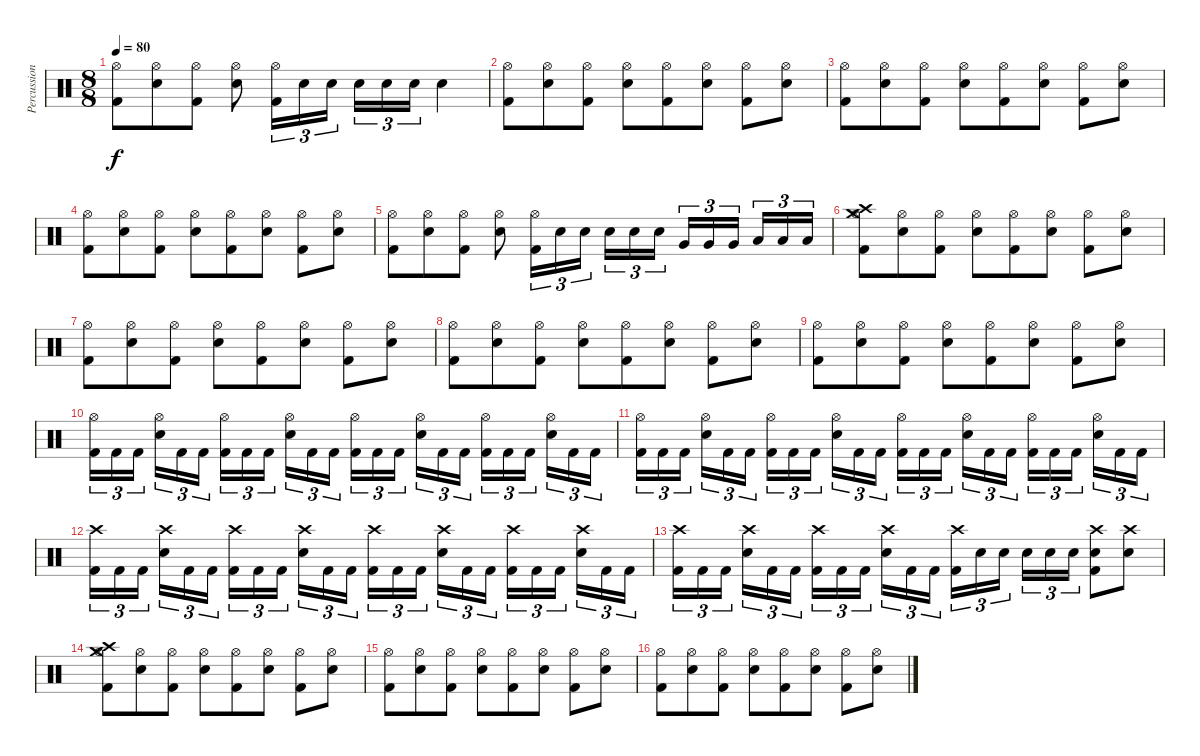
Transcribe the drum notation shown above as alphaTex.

\track ("Percussion" "Percussion") {instrument percussion}
\staff {score}
\articulation defaults
\ts (8 8)
\tempo 80
\clef neutral
\ks c
("Hi-Hat (open)" "Kick (hit) 2").8{dy f} ("Hi-Hat (open)" "Electric Snare (hit)").8 ("Hi-Hat (open)" "Kick (hit) 2").8 ("Hi-Hat (open)" "Electric Snare (hit)").8 ("Hi-Hat (open)" "Kick (hit) 2").16{tu (3 2)} "Electric Snare (hit)".16{tu (3 2)} "Electric Snare (hit)".16{tu (3 2)} "Electric Snare (hit)".16{tu (3 2)} "Electric Snare (hit)".16{tu (3 2)} "Electric Snare (hit)".16{tu (3 2)} "Electric Snare (hit)".4 |
("Hi-Hat (open)" "Kick (hit) 2").8 ("Hi-Hat (open)" "Electric Snare (hit)").8 ("Hi-Hat (open)" "Kick (hit) 2").8 ("Hi-Hat (open)" "Electric Snare (hit)").8 ("Hi-Hat (open)" "Kick (hit) 2").8 ("Hi-Hat (open)" "Electric Snare (hit)").8 ("Hi-Hat (open)" "Kick (hit) 2").8 ("Hi-Hat (open)" "Electric Snare (hit)").8 |
("Hi-Hat (open)" "Kick (hit) 2").8 ("Hi-Hat (open)" "Electric Snare (hit)").8 ("Hi-Hat (open)" "Kick (hit) 2").8 ("Hi-Hat (open)" "Electric Snare (hit)").8 ("Hi-Hat (open)" "Kick (hit) 2").8 ("Hi-Hat (open)" "Electric Snare (hit)").8 ("Hi-Hat (open)" "Kick (hit) 2").8 ("Hi-Hat (open)" "Electric Snare (hit)").8 |
("Hi-Hat (open)" "Kick (hit) 2").8 ("Hi-Hat (open)" "Electric Snare (hit)").8 ("Hi-Hat (open)" "Kick (hit) 2").8 ("Hi-Hat (open)" "Electric Snare (hit)").8 ("Hi-Hat (open)" "Kick (hit) 2").8 ("Hi-Hat (open)" "Electric Snare (hit)").8 ("Hi-Hat (open)" "Kick (hit) 2").8 ("Hi-Hat (open)" "Electric Snare (hit)").8 |
("Hi-Hat (open)" "Kick (hit) 2").8 ("Hi-Hat (open)" "Electric Snare (hit)").8 ("Hi-Hat (open)" "Kick (hit) 2").8 ("Hi-Hat (open)" "Electric Snare (hit)").8 ("Hi-Hat (open)" "Kick (hit) 2").16{tu (3 2)} "Electric Snare (hit)".16{tu (3 2)} "Electric Snare (hit)".16{tu (3 2)} "Electric Snare (hit)".16{tu (3 2)} "Electric Snare (hit)".16{tu (3 2)} "Electric Snare (hit)".16{tu (3 2)} "Very Low Tom (hit)".16{tu (3 2)} "Very Low Tom (hit)".16{tu (3 2)} "Very Low Tom (hit)".16{tu (3 2)} "Low Floor Tom (hit)".16{tu (3 2)} "Low Floor Tom (hit)".16{tu (3 2)} "Low Floor Tom (hit)".16{tu (3 2)} |
("Hi-Hat (open)" "Kick (hit) 2" "Crash high (hit)" "Crash medium (hit)").8 ("Hi-Hat (open)" "Electric Snare (hit)").8 ("Hi-Hat (open)" "Kick (hit) 2").8 ("Hi-Hat (open)" "Electric Snare (hit)").8 ("Hi-Hat (open)" "Kick (hit) 2").8 ("Hi-Hat (open)" "Electric Snare (hit)").8 ("Hi-Hat (open)" "Kick (hit) 2").8 ("Hi-Hat (open)" "Electric Snare (hit)").8 |
("Hi-Hat (open)" "Kick (hit) 2").8 ("Hi-Hat (open)" "Electric Snare (hit)").8 ("Hi-Hat (open)" "Kick (hit) 2").8 ("Hi-Hat (open)" "Electric Snare (hit)").8 ("Hi-Hat (open)" "Kick (hit) 2").8 ("Hi-Hat (open)" "Electric Snare (hit)").8 ("Hi-Hat (open)" "Kick (hit) 2").8 ("Hi-Hat (open)" "Electric Snare (hit)").8 |
("Hi-Hat (open)" "Kick (hit) 2").8 ("Hi-Hat (open)" "Electric Snare (hit)").8 ("Hi-Hat (open)" "Kick (hit) 2").8 ("Hi-Hat (open)" "Electric Snare (hit)").8 ("Hi-Hat (open)" "Kick (hit) 2").8 ("Hi-Hat (open)" "Electric Snare (hit)").8 ("Hi-Hat (open)" "Kick (hit) 2").8 ("Hi-Hat (open)" "Electric Snare (hit)").8 |
("Hi-Hat (open)" "Kick (hit) 2").8 ("Hi-Hat (open)" "Electric Snare (hit)").8 ("Hi-Hat (open)" "Kick (hit) 2").8 ("Hi-Hat (open)" "Electric Snare (hit)").8 ("Hi-Hat (open)" "Kick (hit) 2").8 ("Hi-Hat (open)" "Electric Snare (hit)").8 ("Hi-Hat (open)" "Kick (hit) 2").8 ("Hi-Hat (open)" "Electric Snare (hit)").8 |
("Hi-Hat (open)" "Kick (hit) 2").16{tu (3 2)} "Kick (hit) 2".16{tu (3 2)} "Kick (hit) 2".16{tu (3 2)} ("Hi-Hat (open)" "Electric Snare (hit)").16{tu (3 2)} "Kick (hit) 2".16{tu (3 2)} "Kick (hit) 2".16{tu (3 2)} ("Hi-Hat (open)" "Kick (hit) 2").16{tu (3 2)} "Kick (hit) 2".16{tu (3 2)} "Kick (hit) 2".16{tu (3 2)} ("Hi-Hat (open)" "Electric Snare (hit)").16{tu (3 2)} "Kick (hit) 2".16{tu (3 2)} "Kick (hit) 2".16{tu (3 2)} ("Hi-Hat (open)" "Kick (hit) 2").16{tu (3 2)} "Kick (hit) 2".16{tu (3 2)} "Kick (hit) 2".16{tu (3 2)} ("Hi-Hat (open)" "Electric Snare (hit)").16{tu (3 2)} "Kick (hit) 2".16{tu (3 2)} "Kick (hit) 2".16{tu (3 2)} ("Hi-Hat (open)" "Kick (hit) 2").16{tu (3 2)} "Kick (hit) 2".16{tu (3 2)} "Kick (hit) 2".16{tu (3 2)} ("Hi-Hat (open)" "Electric Snare (hit)").16{tu (3 2)} "Kick (hit) 2".16{tu (3 2)} "Kick (hit) 2".16{tu (3 2)} |
("Hi-Hat (open)" "Kick (hit) 2").16{tu (3 2)} "Kick (hit) 2".16{tu (3 2)} "Kick (hit) 2".16{tu (3 2)} ("Hi-Hat (open)" "Electric Snare (hit)").16{tu (3 2)} "Kick (hit) 2".16{tu (3 2)} "Kick (hit) 2".16{tu (3 2)} ("Hi-Hat (open)" "Kick (hit) 2").16{tu (3 2)} "Kick (hit) 2".16{tu (3 2)} "Kick (hit) 2".16{tu (3 2)} ("Hi-Hat (open)" "Electric Snare (hit)").16{tu (3 2)} "Kick (hit) 2".16{tu (3 2)} "Kick (hit) 2".16{tu (3 2)} ("Hi-Hat (open)" "Kick (hit) 2").16{tu (3 2)} "Kick (hit) 2".16{tu (3 2)} "Kick (hit) 2".16{tu (3 2)} ("Hi-Hat (open)" "Electric Snare (hit)").16{tu (3 2)} "Kick (hit) 2".16{tu (3 2)} "Kick (hit) 2".16{tu (3 2)} ("Hi-Hat (open)" "Kick (hit) 2").16{tu (3 2)} "Kick (hit) 2".16{tu (3 2)} "Kick (hit) 2".16{tu (3 2)} ("Hi-Hat (open)" "Electric Snare (hit)").16{tu (3 2)} "Kick (hit) 2".16{tu (3 2)} "Kick (hit) 2".16{tu (3 2)} |
("Kick (hit) 2" "Crash high (hit)").16{tu (3 2)} "Kick (hit) 2".16{tu (3 2)} "Kick (hit) 2".16{tu (3 2)} ("Electric Snare (hit)" "Crash high (hit)").16{tu (3 2)} "Kick (hit) 2".16{tu (3 2)} "Kick (hit) 2".16{tu (3 2)} ("Kick (hit) 2" "Crash high (hit)").16{tu (3 2)} "Kick (hit) 2".16{tu (3 2)} "Kick (hit) 2".16{tu (3 2)} ("Electric Snare (hit)" "Crash high (hit)").16{tu (3 2)} "Kick (hit) 2".16{tu (3 2)} "Kick (hit) 2".16{tu (3 2)} ("Kick (hit) 2" "Crash high (hit)").16{tu (3 2)} "Kick (hit) 2".16{tu (3 2)} "Kick (hit) 2".16{tu (3 2)} ("Electric Snare (hit)" "Crash high (hit)").16{tu (3 2)} "Kick (hit) 2".16{tu (3 2)} "Kick (hit) 2".16{tu (3 2)} ("Kick (hit) 2" "Crash high (hit)").16{tu (3 2)} "Kick (hit) 2".16{tu (3 2)} "Kick (hit) 2".16{tu (3 2)} ("Electric Snare (hit)" "Crash high (hit)").16{tu (3 2)} "Kick (hit) 2".16{tu (3 2)} "Kick (hit) 2".16{tu (3 2)} |
("Kick (hit) 2" "Crash high (hit)").16{tu (3 2)} "Kick (hit) 2".16{tu (3 2)} "Kick (hit) 2".16{tu (3 2)} ("Electric Snare (hit)" "Crash high (hit)").16{tu (3 2)} "Kick (hit) 2".16{tu (3 2)} "Kick (hit) 2".16{tu (3 2)} ("Kick (hit) 2" "Crash high (hit)").16{tu (3 2)} "Kick (hit) 2".16{tu (3 2)} "Kick (hit) 2".16{tu (3 2)} ("Electric Snare (hit)" "Crash high (hit)").16{tu (3 2)} "Kick (hit) 2".16{tu (3 2)} "Kick (hit) 2".16{tu (3 2)} ("Kick (hit) 2" "Crash high (hit)").16{tu (3 2)} "Electric Snare (hit)".16{tu (3 2)} "Electric Snare (hit)".16{tu (3 2)} "Electric Snare (hit)".16{tu (3 2)} "Electric Snare (hit)".16{tu (3 2)} "Electric Snare (hit)".16{tu (3 2)} ("Kick (hit) 2" "Electric Snare (hit)" "Crash high (hit)").8 ("Electric Snare (hit)" "Crash high (hit)").8 |
("Crash high (hit)" "Hi-Hat (open)" "Kick (hit) 2" "Crash medium (hit)").8 ("Hi-Hat (open)" "Electric Snare (hit)").8 ("Hi-Hat (open)" "Kick (hit) 2").8 ("Hi-Hat (open)" "Electric Snare (hit)").8 ("Hi-Hat (open)" "Kick (hit) 2").8 ("Hi-Hat (open)" "Electric Snare (hit)").8 ("Hi-Hat (open)" "Kick (hit) 2").8 ("Hi-Hat (open)" "Electric Snare (hit)").8 |
("Hi-Hat (open)" "Kick (hit) 2").8 ("Hi-Hat (open)" "Electric Snare (hit)").8 ("Hi-Hat (open)" "Kick (hit) 2").8 ("Hi-Hat (open)" "Electric Snare (hit)").8 ("Hi-Hat (open)" "Kick (hit) 2").8 ("Hi-Hat (open)" "Electric Snare (hit)").8 ("Hi-Hat (open)" "Kick (hit) 2").8 ("Hi-Hat (open)" "Electric Snare (hit)").8 |
("Hi-Hat (open)" "Kick (hit) 2").8 ("Hi-Hat (open)" "Electric Snare (hit)").8 ("Hi-Hat (open)" "Kick (hit) 2").8 ("Hi-Hat (open)" "Electric Snare (hit)").8 ("Hi-Hat (open)" "Kick (hit) 2").8 ("Hi-Hat (open)" "Electric Snare (hit)").8 ("Hi-Hat (open)" "Kick (hit) 2").8 ("Hi-Hat (open)" "Electric Snare (hit)").8
